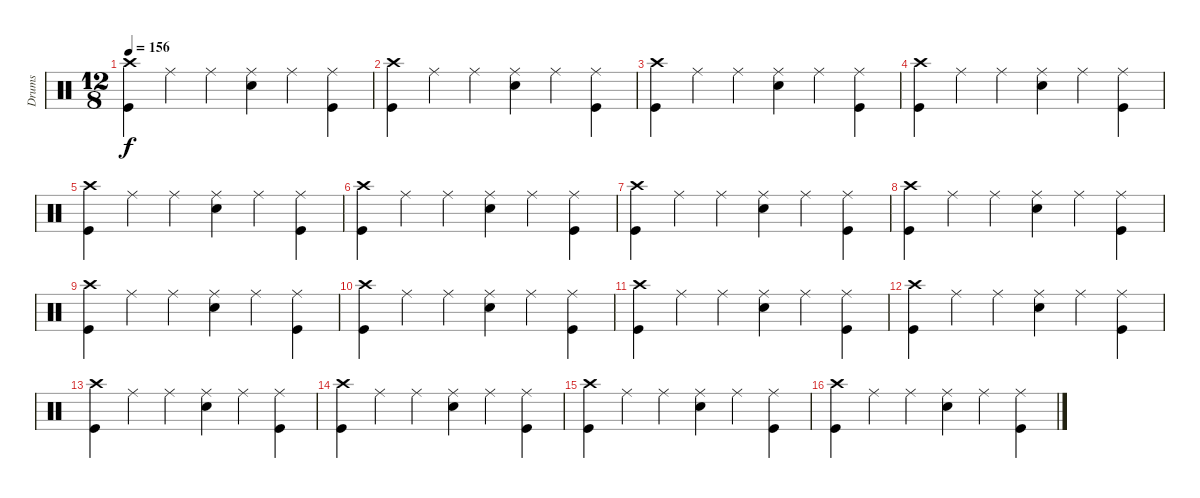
\track ("Drums" "Drums") {instrument percussion}
\staff {score}
\articulation defaults
\ts (12 8)
\tempo 156
\clef neutral
\ks c
("Crash high (hit)" "Kick (hit)").4{dy f} "Ride (middle)".4 "Ride (middle)".4 ("Ride (middle)" "Electric Snare (hit)").4 "Ride (middle)".4 ("Ride (middle)" "Kick (hit)").4 |
("Crash high (hit)" "Kick (hit)").4 "Ride (middle)".4 "Ride (middle)".4 ("Ride (middle)" "Electric Snare (hit)").4 "Ride (middle)".4 ("Ride (middle)" "Kick (hit)").4 |
("Crash high (hit)" "Kick (hit)").4 "Ride (middle)".4 "Ride (middle)".4 ("Ride (middle)" "Electric Snare (hit)").4 "Ride (middle)".4 ("Ride (middle)" "Kick (hit)").4 |
("Crash high (hit)" "Kick (hit)").4 "Ride (middle)".4 "Ride (middle)".4 ("Ride (middle)" "Electric Snare (hit)").4 "Ride (middle)".4 ("Ride (middle)" "Kick (hit)").4 |
("Crash high (hit)" "Kick (hit)").4 "Ride (middle)".4 "Ride (middle)".4 ("Ride (middle)" "Electric Snare (hit)").4 "Ride (middle)".4 ("Ride (middle)" "Kick (hit)").4 |
("Crash high (hit)" "Kick (hit)").4 "Ride (middle)".4 "Ride (middle)".4 ("Ride (middle)" "Electric Snare (hit)").4 "Ride (middle)".4 ("Ride (middle)" "Kick (hit)").4 |
("Crash high (hit)" "Kick (hit)").4 "Ride (middle)".4 "Ride (middle)".4 ("Ride (middle)" "Electric Snare (hit)").4 "Ride (middle)".4 ("Ride (middle)" "Kick (hit)").4 |
("Crash high (hit)" "Kick (hit)").4 "Ride (middle)".4 "Ride (middle)".4 ("Ride (middle)" "Electric Snare (hit)").4 "Ride (middle)".4 ("Ride (middle)" "Kick (hit)").4 |
("Crash high (hit)" "Kick (hit)").4 "Ride (middle)".4 "Ride (middle)".4 ("Ride (middle)" "Electric Snare (hit)").4 "Ride (middle)".4 ("Ride (middle)" "Kick (hit)").4 |
("Crash high (hit)" "Kick (hit)").4 "Ride (middle)".4 "Ride (middle)".4 ("Ride (middle)" "Electric Snare (hit)").4 "Ride (middle)".4 ("Ride (middle)" "Kick (hit)").4 |
("Crash high (hit)" "Kick (hit)").4 "Ride (middle)".4 "Ride (middle)".4 ("Ride (middle)" "Electric Snare (hit)").4 "Ride (middle)".4 ("Ride (middle)" "Kick (hit)").4 |
("Crash high (hit)" "Kick (hit)").4 "Ride (middle)".4 "Ride (middle)".4 ("Ride (middle)" "Electric Snare (hit)").4 "Ride (middle)".4 ("Ride (middle)" "Kick (hit)").4 |
("Crash high (hit)" "Kick (hit)").4 "Ride (middle)".4 "Ride (middle)".4 ("Ride (middle)" "Electric Snare (hit)").4 "Ride (middle)".4 ("Ride (middle)" "Kick (hit)").4 |
("Crash high (hit)" "Kick (hit)").4 "Ride (middle)".4 "Ride (middle)".4 ("Ride (middle)" "Electric Snare (hit)").4 "Ride (middle)".4 ("Ride (middle)" "Kick (hit)").4 |
("Crash high (hit)" "Kick (hit)").4 "Ride (middle)".4 "Ride (middle)".4 ("Ride (middle)" "Electric Snare (hit)").4 "Ride (middle)".4 ("Ride (middle)" "Kick (hit)").4 |
("Crash high (hit)" "Kick (hit)").4 "Ride (middle)".4 "Ride (middle)".4 ("Ride (middle)" "Electric Snare (hit)").4 "Ride (middle)".4 ("Ride (middle)" "Kick (hit)").4
